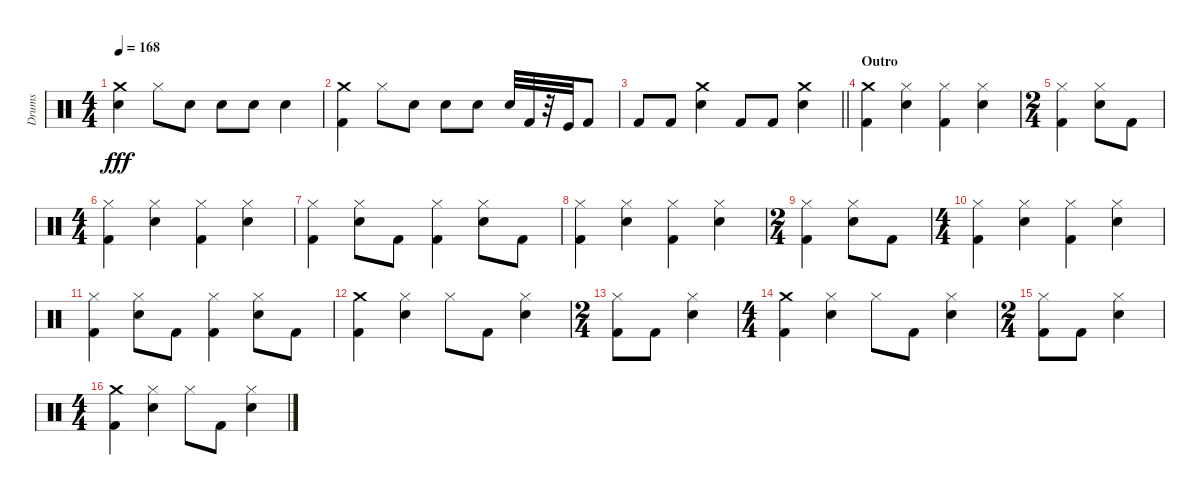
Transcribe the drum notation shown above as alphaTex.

\track ("Drums" "Drums") {instrument percussion}
\staff {score}
\articulation defaults
\ts (4 4)
\tempo 168
\clef neutral
\ks c
("Snare (hit) 2" "Crash medium (hit)").4{dy fff} "Hi-Hat (closed)".8 "Snare (hit) 2".8 "Snare (hit) 2".8 "Snare (hit) 2".8 "Snare (hit) 2".4 |
("Kick (hit) 2" "Crash medium (hit)").4 "Hi-Hat (closed)".8 "Snare (hit) 2".8 "Snare (hit) 2".8 "Snare (hit) 2".8 "Snare (hit) 2".32 "Kick (hit) 2".32 r.32 "Kick (hit)".32 "Kick (hit) 2".8 |
\barLineRight lightlight "Kick (hit) 2".8 "Kick (hit) 2".8
("Snare (hit) 2" "Crash medium (hit)").4 "Kick (hit) 2".8 "Kick (hit) 2".8 ("Crash medium (hit)" "Snare (hit) 2").4 |
\section ("" "Outro")
("Kick (hit) 2" "Crash medium (hit)").4 ("Hi-Hat (closed)" "Snare (hit) 2").4 ("Hi-Hat (closed)" "Kick (hit) 2").4 ("Snare (hit) 2" "Hi-Hat (closed)").4 |
\ts (2 4)
("Hi-Hat (closed)" "Kick (hit) 2").4 ("Snare (hit) 2" "Hi-Hat (closed)").8 "Kick (hit) 2".8 |
\ts (4 4)
("Kick (hit) 2" "Hi-Hat (closed)").4 ("Snare (hit) 2" "Hi-Hat (closed)").4 ("Kick (hit) 2" "Hi-Hat (closed)").4 ("Snare (hit) 2" "Hi-Hat (closed)").4 |
("Hi-Hat (closed)" "Kick (hit) 2").4 ("Snare (hit) 2" "Hi-Hat (closed)").8 "Kick (hit) 2".8 ("Kick (hit) 2" "Hi-Hat (closed)").4 ("Hi-Hat (closed)" "Snare (hit) 2").8 "Kick (hit) 2".8 |
("Hi-Hat (closed)" "Kick (hit) 2").4 ("Hi-Hat (closed)" "Snare (hit) 2").4 ("Hi-Hat (closed)" "Kick (hit) 2").4 ("Snare (hit) 2" "Hi-Hat (closed)").4 |
\ts (2 4)
("Hi-Hat (closed)" "Kick (hit) 2").4 ("Snare (hit) 2" "Hi-Hat (closed)").8 "Kick (hit) 2".8 |
\ts (4 4)
("Kick (hit) 2" "Hi-Hat (closed)").4 ("Snare (hit) 2" "Hi-Hat (closed)").4 ("Kick (hit) 2" "Hi-Hat (closed)").4 ("Snare (hit) 2" "Hi-Hat (closed)").4 |
("Hi-Hat (closed)" "Kick (hit) 2").4 ("Snare (hit) 2" "Hi-Hat (closed)").8 "Kick (hit) 2".8 ("Kick (hit) 2" "Hi-Hat (closed)").4 ("Hi-Hat (closed)" "Snare (hit) 2").8 "Kick (hit) 2".8 |
("Kick (hit) 2" "Crash medium (hit)").4 ("Hi-Hat (closed)" "Snare (hit) 2").4 "Hi-Hat (closed)".8 "Kick (hit) 2".8 ("Snare (hit) 2" "Hi-Hat (closed)").4 |
\ts (2 4)
("Kick (hit) 2" "Hi-Hat (closed)").8 "Kick (hit) 2".8 ("Snare (hit) 2" "Hi-Hat (closed)").4 |
\ts (4 4)
("Kick (hit) 2" "Crash medium (hit)").4 ("Hi-Hat (closed)" "Snare (hit) 2").4 "Hi-Hat (closed)".8 "Kick (hit) 2".8 ("Snare (hit) 2" "Hi-Hat (closed)").4 |
\ts (2 4)
("Kick (hit) 2" "Hi-Hat (closed)").8 "Kick (hit) 2".8 ("Snare (hit) 2" "Hi-Hat (closed)").4 |
\ts (4 4)
("Kick (hit) 2" "Crash medium (hit)").4 ("Hi-Hat (closed)" "Snare (hit) 2").4 "Hi-Hat (closed)".8 "Kick (hit) 2".8 ("Snare (hit) 2" "Hi-Hat (closed)").4
